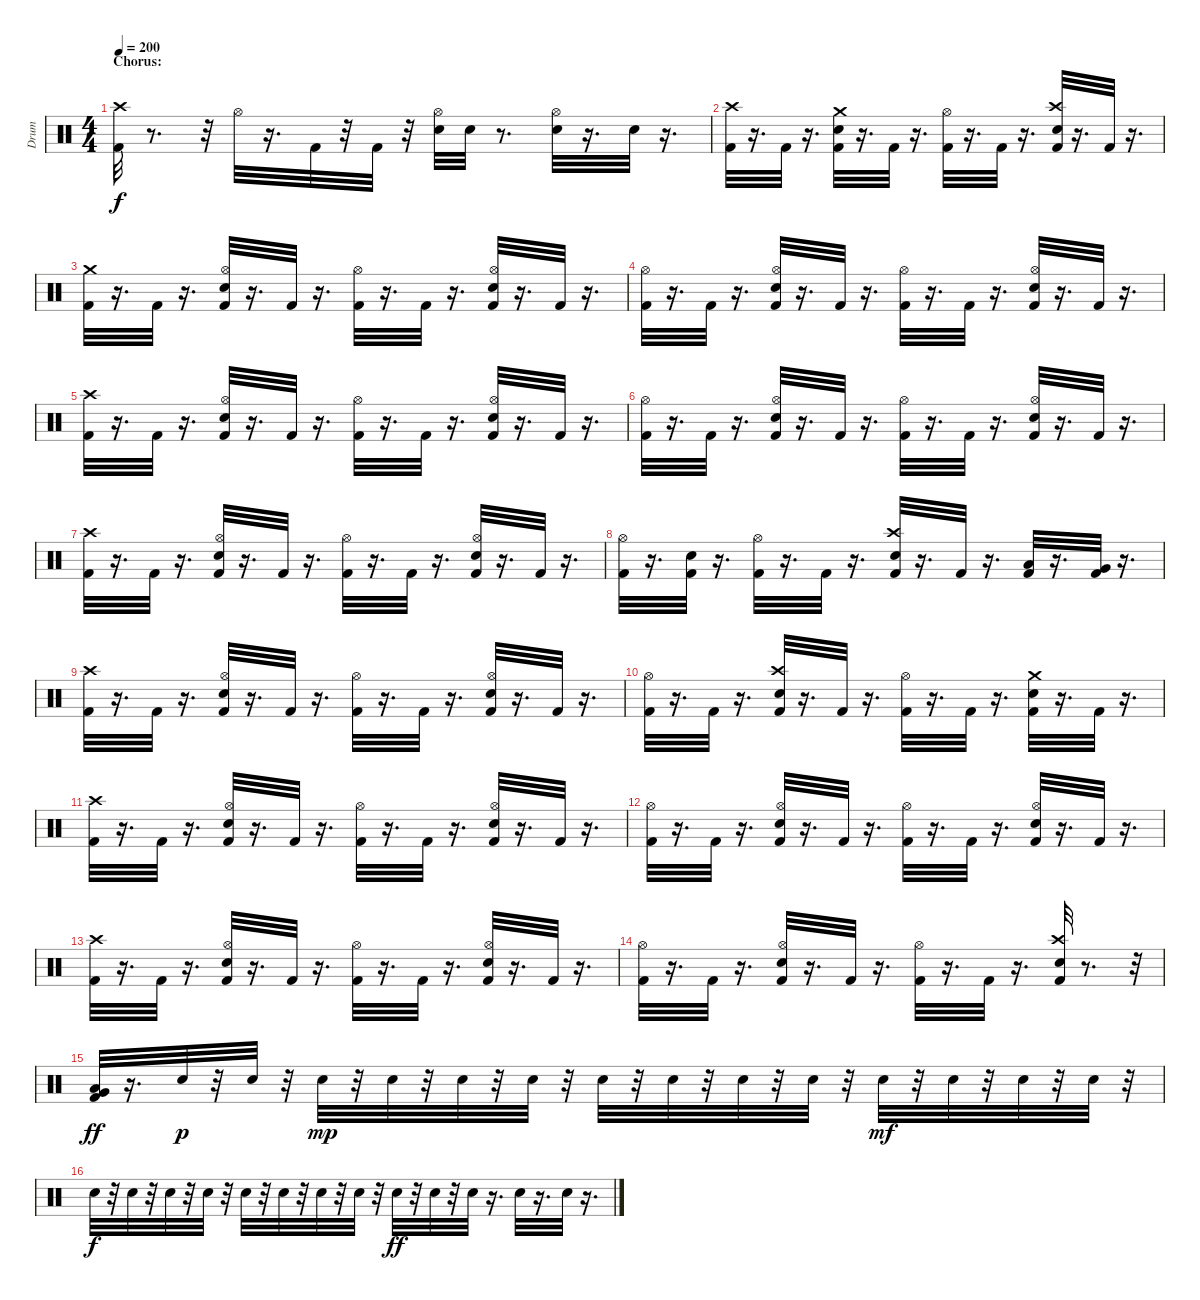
\track ("Drum" "Drum") {instrument percussion}
\staff {score}
\articulation defaults
\ts (4 4)
\section ("" "Chorus:")
\tempo 200
\clef neutral
\ks c
("Kick (hit) 2" "Crash high (hit)").32{dy f} r.8{d} r.32 "Hi-Hat (open)".32 r.16{d} "Kick (hit) 2".32 r.32 "Kick (hit) 2".32 r.32 ("Snare (hit) 2" "Hi-Hat (open)").32 "Snare (hit) 2".32 r.8{d} ("Snare (hit) 2" "Hi-Hat (open)").32 r.16{d} "Snare (hit) 2".32 r.16{d} |
("Kick (hit) 2" "Crash high (hit)").32 r.16{d} "Kick (hit) 2".32 r.16{d} ("Kick (hit) 2" "Snare (hit) 2" "Crash medium (hit)").32 r.16{d} "Kick (hit) 2".32 r.16{d} ("Kick (hit) 2" "Hi-Hat (open)").32 r.16{d} "Kick (hit) 2".32 r.16{d} ("Kick (hit) 2" "Snare (hit) 2" "Crash high (hit)").32 r.16{d} "Kick (hit) 2".32 r.16{d} |
("Kick (hit) 2" "Crash medium (hit)").32 r.16{d} "Kick (hit) 2".32 r.16{d} ("Kick (hit) 2" "Hi-Hat (open)" "Snare (hit) 2").32 r.16{d} "Kick (hit) 2".32 r.16{d} ("Kick (hit) 2" "Hi-Hat (open)").32 r.16{d} "Kick (hit) 2".32 r.16{d} ("Kick (hit) 2" "Hi-Hat (open)" "Snare (hit) 2").32 r.16{d} "Kick (hit) 2".32 r.16{d} |
("Kick (hit) 2" "Hi-Hat (open)").32 r.16{d} "Kick (hit) 2".32 r.16{d} ("Kick (hit) 2" "Hi-Hat (open)" "Snare (hit) 2").32 r.16{d} "Kick (hit) 2".32 r.16{d} ("Kick (hit) 2" "Hi-Hat (open)").32 r.16{d} "Kick (hit) 2".32 r.16{d} ("Kick (hit) 2" "Hi-Hat (open)" "Snare (hit) 2").32 r.16{d} "Kick (hit) 2".32 r.16{d} |
("Kick (hit) 2" "Crash high (hit)").32 r.16{d} "Kick (hit) 2".32 r.16{d} ("Kick (hit) 2" "Hi-Hat (open)" "Snare (hit) 2").32 r.16{d} "Kick (hit) 2".32 r.16{d} ("Kick (hit) 2" "Hi-Hat (open)").32 r.16{d} "Kick (hit) 2".32 r.16{d} ("Kick (hit) 2" "Hi-Hat (open)" "Snare (hit) 2").32 r.16{d} "Kick (hit) 2".32 r.16{d} |
("Kick (hit) 2" "Hi-Hat (open)").32 r.16{d} "Kick (hit) 2".32 r.16{d} ("Kick (hit) 2" "Hi-Hat (open)" "Snare (hit) 2").32 r.16{d} "Kick (hit) 2".32 r.16{d} ("Kick (hit) 2" "Hi-Hat (open)").32 r.16{d} "Kick (hit) 2".32 r.16{d} ("Kick (hit) 2" "Hi-Hat (open)" "Snare (hit) 2").32 r.16{d} "Kick (hit) 2".32 r.16{d} |
("Kick (hit) 2" "Crash high (hit)").32 r.16{d} "Kick (hit) 2".32 r.16{d} ("Kick (hit) 2" "Hi-Hat (open)" "Snare (hit) 2").32 r.16{d} "Kick (hit) 2".32 r.16{d} ("Kick (hit) 2" "Hi-Hat (open)").32 r.16{d} "Kick (hit) 2".32 r.16{d} ("Kick (hit) 2" "Hi-Hat (open)" "Snare (hit) 2").32 r.16{d} "Kick (hit) 2".32 r.16{d} |
("Kick (hit) 2" "Hi-Hat (open)").32 r.16{d} ("Kick (hit) 2" "Snare (hit) 2").32 r.16{d} ("Kick (hit) 2" "Hi-Hat (open)").32 r.16{d} "Kick (hit) 2".32 r.16{d} ("Kick (hit) 2" "Snare (hit) 2" "Crash high (hit)").32 r.16{d} "Kick (hit) 2".32 r.16{d} ("Kick (hit) 2" "Low Tom (hit)").32 r.16{d} ("Kick (hit) 2" "Very Low Tom (hit)").32 r.16{d} |
("Kick (hit) 2" "Crash high (hit)").32 r.16{d} "Kick (hit) 2".32 r.16{d} ("Hi-Hat (open)" "Snare (hit) 2" "Kick (hit) 2").32 r.16{d} "Kick (hit) 2".32 r.16{d} ("Hi-Hat (open)" "Kick (hit) 2").32 r.16{d} "Kick (hit) 2".32 r.16{d} ("Hi-Hat (open)" "Snare (hit) 2" "Kick (hit) 2").32 r.16{d} "Kick (hit) 2".32 r.16{d} |
("Hi-Hat (open)" "Kick (hit) 2").32 r.16{d} "Kick (hit) 2".32 r.16{d} ("Snare (hit) 2" "Crash high (hit)" "Kick (hit) 2").32 r.16{d} "Kick (hit) 2".32 r.16{d} ("Kick (hit) 2" "Hi-Hat (open)").32 r.16{d} "Kick (hit) 2".32 r.16{d} ("Snare (hit) 2" "Kick (hit) 2" "Crash medium (hit)").32 r.16{d} "Kick (hit) 2".32 r.16{d} |
("Crash high (hit)" "Kick (hit) 2").32 r.16{d} "Kick (hit) 2".32 r.16{d} ("Hi-Hat (open)" "Snare (hit) 2" "Kick (hit) 2").32 r.16{d} "Kick (hit) 2".32 r.16{d} ("Hi-Hat (open)" "Kick (hit) 2").32 r.16{d} "Kick (hit) 2".32 r.16{d} ("Hi-Hat (open)" "Snare (hit) 2" "Kick (hit) 2").32 r.16{d} "Kick (hit) 2".32 r.16{d} |
("Hi-Hat (open)" "Kick (hit) 2").32 r.16{d} "Kick (hit) 2".32 r.16{d} ("Hi-Hat (open)" "Snare (hit) 2" "Kick (hit) 2").32 r.16{d} "Kick (hit) 2".32 r.16{d} ("Hi-Hat (open)" "Kick (hit) 2").32 r.16{d} "Kick (hit) 2".32 r.16{d} ("Hi-Hat (open)" "Snare (hit) 2" "Kick (hit) 2").32 r.16{d} "Kick (hit) 2".32 r.16{d} |
("Kick (hit) 2" "Crash high (hit)").32 r.16{d} "Kick (hit) 2".32 r.16{d} ("Hi-Hat (open)" "Snare (hit) 2" "Kick (hit) 2").32 r.16{d} "Kick (hit) 2".32 r.16{d} ("Hi-Hat (open)" "Kick (hit) 2").32 r.16{d} "Kick (hit) 2".32 r.16{d} ("Hi-Hat (open)" "Snare (hit) 2" "Kick (hit) 2").32 r.16{d} "Kick (hit) 2".32 r.16{d} |
("Hi-Hat (open)" "Kick (hit) 2").32 r.16{d} "Kick (hit) 2".32 r.16{d} ("Hi-Hat (open)" "Snare (hit) 2" "Kick (hit) 2").32 r.16{d} "Kick (hit) 2".32 r.16{d} ("Hi-Hat (open)" "Kick (hit) 2").32 r.16{d} "Kick (hit) 2".32 r.16{d} ("Crash high (hit)" "Snare (hit) 2" "Kick (hit) 2").32 r.8{d} r.32 |
("Very Low Tom (hit)" "Low Floor Tom (hit)" "Kick (hit) 2").32{dy ff} r.16{d} "Snare (hit) 2".32{dy p} r.32 "Snare (hit) 2".32 r.32 "Snare (hit) 2".32{dy mp} r.32 "Snare (hit) 2".32 r.32 "Snare (hit) 2".32 r.32 "Snare (hit) 2".32 r.32 "Snare (hit) 2".32 r.32 "Snare (hit) 2".32 r.32 "Snare (hit) 2".32 r.32 "Snare (hit) 2".32 r.32 "Snare (hit) 2".32{dy mf} r.32 "Snare (hit) 2".32 r.32 "Snare (hit) 2".32 r.32 "Snare (hit) 2".32 r.32 |
"Snare (hit) 2".32{dy f} r.32 "Snare (hit) 2".32 r.32 "Snare (hit) 2".32 r.32 "Snare (hit) 2".32 r.32 "Snare (hit) 2".32 r.32 "Snare (hit) 2".32 r.32 "Snare (hit) 2".32 r.32 "Snare (hit) 2".32 r.32 "Snare (hit) 2".32{dy ff} r.32 "Snare (hit) 2".32 r.32 "Snare (hit) 2".32 r.16{d} "Snare (hit) 2".32 r.16{d} "Snare (hit) 2".32 r.16{d}
